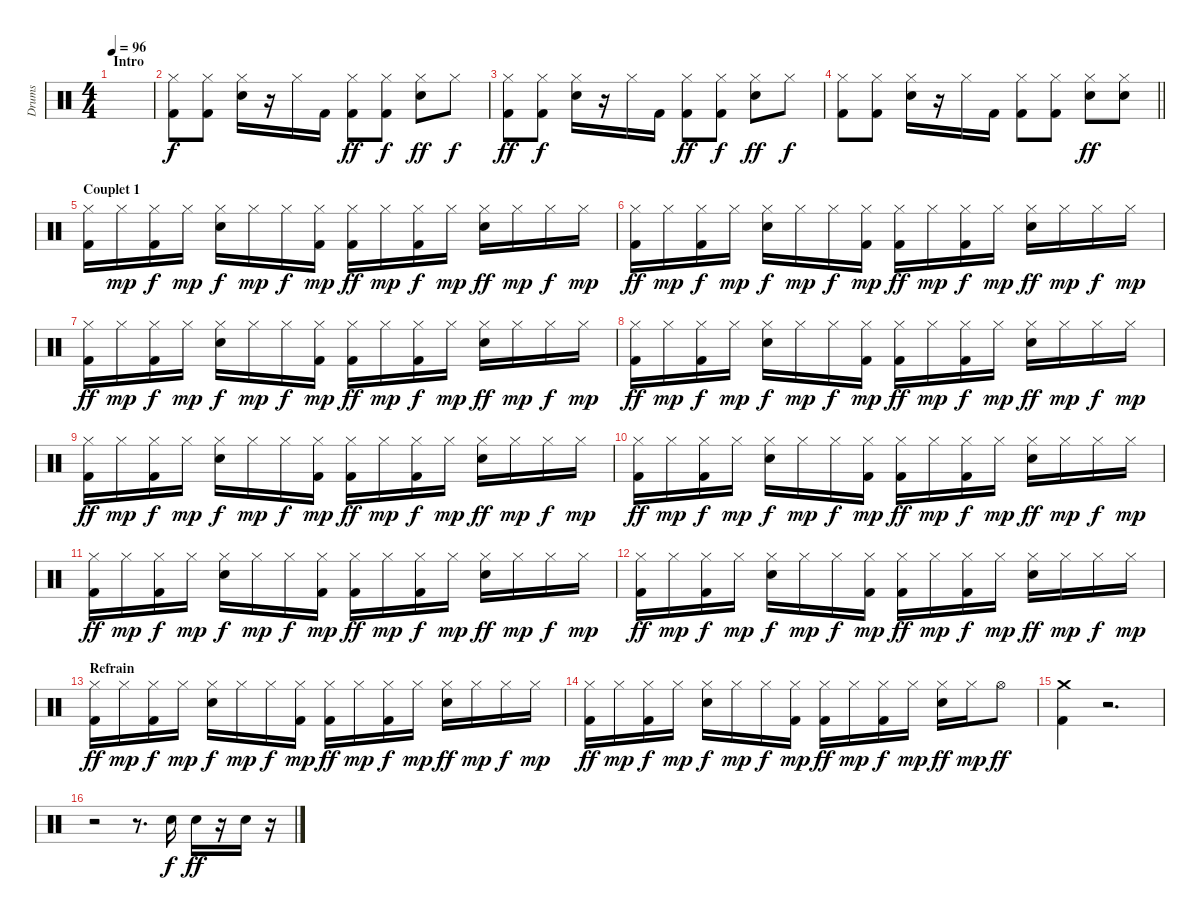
\track ("Drums" "Drums") {instrument percussion}
\staff {score}
\articulation defaults
\ts (4 4)
\section ("" "Intro")
\tempo 96
\clef neutral
\ks c
|
("Hi-Hat (closed)" "Kick (hit) 2").8 ("Hi-Hat (closed)" "Kick (hit) 2").8{dy f} ("Hi-Hat (closed)" "Snare (hit) 2").16 r.16 "Hi-Hat (closed)".16 "Kick (hit) 2".16 ("Hi-Hat (closed)" "Kick (hit) 2").8{dy ff} ("Hi-Hat (closed)" "Kick (hit) 2").8{dy f} ("Hi-Hat (closed)" "Snare (hit) 2").8{dy ff} "Hi-Hat (closed)".8{dy f} |
("Hi-Hat (closed)" "Kick (hit) 2").8{dy ff} ("Hi-Hat (closed)" "Kick (hit) 2").8{dy f} ("Hi-Hat (closed)" "Snare (hit) 2").16 r.16 "Hi-Hat (closed)".16 "Kick (hit) 2".16 ("Hi-Hat (closed)" "Kick (hit) 2").8{dy ff} ("Hi-Hat (closed)" "Kick (hit) 2").8{dy f} ("Hi-Hat (closed)" "Snare (hit) 2").8{dy ff} "Hi-Hat (closed)".8{dy f} |
\barLineRight lightlight
("Hi-Hat (closed)" "Kick (hit) 2").8 ("Hi-Hat (closed)" "Kick (hit) 2").8 ("Hi-Hat (closed)" "Snare (hit) 2").16 r.16 "Hi-Hat (closed)".16 "Kick (hit) 2".16 ("Hi-Hat (closed)" "Kick (hit) 2").8 ("Hi-Hat (closed)" "Kick (hit) 2").8 ("Hi-Hat (closed)" "Snare (hit) 2").8{dy ff} ("Hi-Hat (closed)" "Snare (hit) 2").8 |
\section ("" "Couplet 1")
("Hi-Hat (closed)" "Kick (hit) 2").16 "Hi-Hat (closed)".16{dy mp} ("Hi-Hat (closed)" "Kick (hit) 2").16{dy f} "Hi-Hat (closed)".16{dy mp} ("Hi-Hat (closed)" "Snare (hit) 2").16{dy f} "Hi-Hat (closed)".16{dy mp} "Hi-Hat (closed)".16{dy f} ("Hi-Hat (closed)" "Kick (hit) 2").16{dy mp} ("Hi-Hat (closed)" "Kick (hit) 2").16{dy ff} "Hi-Hat (closed)".16{dy mp} ("Hi-Hat (closed)" "Kick (hit) 2").16{dy f} "Hi-Hat (closed)".16{dy mp} ("Hi-Hat (closed)" "Snare (hit) 2").16{dy ff} "Hi-Hat (closed)".16{dy mp} "Hi-Hat (closed)".16{dy f} "Hi-Hat (closed)".16{dy mp} |
("Hi-Hat (closed)" "Kick (hit) 2").16{dy ff} "Hi-Hat (closed)".16{dy mp} ("Hi-Hat (closed)" "Kick (hit) 2").16{dy f} "Hi-Hat (closed)".16{dy mp} ("Hi-Hat (closed)" "Snare (hit) 2").16{dy f} "Hi-Hat (closed)".16{dy mp} "Hi-Hat (closed)".16{dy f} ("Hi-Hat (closed)" "Kick (hit) 2").16{dy mp} ("Hi-Hat (closed)" "Kick (hit) 2").16{dy ff} "Hi-Hat (closed)".16{dy mp} ("Hi-Hat (closed)" "Kick (hit) 2").16{dy f} "Hi-Hat (closed)".16{dy mp} ("Hi-Hat (closed)" "Snare (hit) 2").16{dy ff} "Hi-Hat (closed)".16{dy mp} "Hi-Hat (closed)".16{dy f} "Hi-Hat (closed)".16{dy mp} |
("Hi-Hat (closed)" "Kick (hit) 2").16{dy ff} "Hi-Hat (closed)".16{dy mp} ("Hi-Hat (closed)" "Kick (hit) 2").16{dy f} "Hi-Hat (closed)".16{dy mp} ("Hi-Hat (closed)" "Snare (hit) 2").16{dy f} "Hi-Hat (closed)".16{dy mp} "Hi-Hat (closed)".16{dy f} ("Hi-Hat (closed)" "Kick (hit) 2").16{dy mp} ("Hi-Hat (closed)" "Kick (hit) 2").16{dy ff} "Hi-Hat (closed)".16{dy mp} ("Hi-Hat (closed)" "Kick (hit) 2").16{dy f} "Hi-Hat (closed)".16{dy mp} ("Hi-Hat (closed)" "Snare (hit) 2").16{dy ff} "Hi-Hat (closed)".16{dy mp} "Hi-Hat (closed)".16{dy f} "Hi-Hat (closed)".16{dy mp} |
("Hi-Hat (closed)" "Kick (hit) 2").16{dy ff} "Hi-Hat (closed)".16{dy mp} ("Hi-Hat (closed)" "Kick (hit) 2").16{dy f} "Hi-Hat (closed)".16{dy mp} ("Hi-Hat (closed)" "Snare (hit) 2").16{dy f} "Hi-Hat (closed)".16{dy mp} "Hi-Hat (closed)".16{dy f} ("Hi-Hat (closed)" "Kick (hit) 2").16{dy mp} ("Hi-Hat (closed)" "Kick (hit) 2").16{dy ff} "Hi-Hat (closed)".16{dy mp} ("Hi-Hat (closed)" "Kick (hit) 2").16{dy f} "Hi-Hat (closed)".16{dy mp} ("Hi-Hat (closed)" "Snare (hit) 2").16{dy ff} "Hi-Hat (closed)".16{dy mp} "Hi-Hat (closed)".16{dy f} "Hi-Hat (closed)".16{dy mp} |
("Hi-Hat (closed)" "Kick (hit) 2").16{dy ff} "Hi-Hat (closed)".16{dy mp} ("Hi-Hat (closed)" "Kick (hit) 2").16{dy f} "Hi-Hat (closed)".16{dy mp} ("Hi-Hat (closed)" "Snare (hit) 2").16{dy f} "Hi-Hat (closed)".16{dy mp} "Hi-Hat (closed)".16{dy f} ("Hi-Hat (closed)" "Kick (hit) 2").16{dy mp} ("Hi-Hat (closed)" "Kick (hit) 2").16{dy ff} "Hi-Hat (closed)".16{dy mp} ("Hi-Hat (closed)" "Kick (hit) 2").16{dy f} "Hi-Hat (closed)".16{dy mp} ("Hi-Hat (closed)" "Snare (hit) 2").16{dy ff} "Hi-Hat (closed)".16{dy mp} "Hi-Hat (closed)".16{dy f} "Hi-Hat (closed)".16{dy mp} |
("Hi-Hat (closed)" "Kick (hit) 2").16{dy ff} "Hi-Hat (closed)".16{dy mp} ("Hi-Hat (closed)" "Kick (hit) 2").16{dy f} "Hi-Hat (closed)".16{dy mp} ("Hi-Hat (closed)" "Snare (hit) 2").16{dy f} "Hi-Hat (closed)".16{dy mp} "Hi-Hat (closed)".16{dy f} ("Hi-Hat (closed)" "Kick (hit) 2").16{dy mp} ("Hi-Hat (closed)" "Kick (hit) 2").16{dy ff} "Hi-Hat (closed)".16{dy mp} ("Hi-Hat (closed)" "Kick (hit) 2").16{dy f} "Hi-Hat (closed)".16{dy mp} ("Hi-Hat (closed)" "Snare (hit) 2").16{dy ff} "Hi-Hat (closed)".16{dy mp} "Hi-Hat (closed)".16{dy f} "Hi-Hat (closed)".16{dy mp} |
("Hi-Hat (closed)" "Kick (hit) 2").16{dy ff} "Hi-Hat (closed)".16{dy mp} ("Hi-Hat (closed)" "Kick (hit) 2").16{dy f} "Hi-Hat (closed)".16{dy mp} ("Hi-Hat (closed)" "Snare (hit) 2").16{dy f} "Hi-Hat (closed)".16{dy mp} "Hi-Hat (closed)".16{dy f} ("Hi-Hat (closed)" "Kick (hit) 2").16{dy mp} ("Hi-Hat (closed)" "Kick (hit) 2").16{dy ff} "Hi-Hat (closed)".16{dy mp} ("Hi-Hat (closed)" "Kick (hit) 2").16{dy f} "Hi-Hat (closed)".16{dy mp} ("Hi-Hat (closed)" "Snare (hit) 2").16{dy ff} "Hi-Hat (closed)".16{dy mp} "Hi-Hat (closed)".16{dy f} "Hi-Hat (closed)".16{dy mp} |
("Hi-Hat (closed)" "Kick (hit) 2").16{dy ff} "Hi-Hat (closed)".16{dy mp} ("Hi-Hat (closed)" "Kick (hit) 2").16{dy f} "Hi-Hat (closed)".16{dy mp} ("Hi-Hat (closed)" "Snare (hit) 2").16{dy f} "Hi-Hat (closed)".16{dy mp} "Hi-Hat (closed)".16{dy f} ("Hi-Hat (closed)" "Kick (hit) 2").16{dy mp} ("Hi-Hat (closed)" "Kick (hit) 2").16{dy ff} "Hi-Hat (closed)".16{dy mp} ("Hi-Hat (closed)" "Kick (hit) 2").16{dy f} "Hi-Hat (closed)".16{dy mp} ("Hi-Hat (closed)" "Snare (hit) 2").16{dy ff} "Hi-Hat (closed)".16{dy mp} "Hi-Hat (closed)".16{dy f} "Hi-Hat (closed)".16{dy mp} |
\section ("" "Refrain")
("Hi-Hat (closed)" "Kick (hit) 2").16{dy ff} "Hi-Hat (closed)".16{dy mp} ("Hi-Hat (closed)" "Kick (hit) 2").16{dy f} "Hi-Hat (closed)".16{dy mp} ("Hi-Hat (closed)" "Snare (hit) 2").16{dy f} "Hi-Hat (closed)".16{dy mp} "Hi-Hat (closed)".16{dy f} ("Hi-Hat (closed)" "Kick (hit) 2").16{dy mp} ("Hi-Hat (closed)" "Kick (hit) 2").16{dy ff} "Hi-Hat (closed)".16{dy mp} ("Hi-Hat (closed)" "Kick (hit) 2").16{dy f} "Hi-Hat (closed)".16{dy mp} ("Hi-Hat (closed)" "Snare (hit) 2").16{dy ff} "Hi-Hat (closed)".16{dy mp} "Hi-Hat (closed)".16{dy f} "Hi-Hat (closed)".16{dy mp} |
("Hi-Hat (closed)" "Kick (hit) 2").16{dy ff} "Hi-Hat (closed)".16{dy mp} ("Hi-Hat (closed)" "Kick (hit) 2").16{dy f} "Hi-Hat (closed)".16{dy mp} ("Hi-Hat (closed)" "Snare (hit) 2").16{dy f} "Hi-Hat (closed)".16{dy mp} "Hi-Hat (closed)".16{dy f} ("Hi-Hat (closed)" "Kick (hit) 2").16{dy mp} ("Hi-Hat (closed)" "Kick (hit) 2").16{dy ff} "Hi-Hat (closed)".16{dy mp} ("Hi-Hat (closed)" "Kick (hit) 2").16{dy f} "Hi-Hat (closed)".16{dy mp} ("Hi-Hat (closed)" "Snare (hit) 2").16{dy ff} "Hi-Hat (closed)".16{dy mp} "Hi-Hat (open)".8{dy ff} |
("Crash medium (hit)" "Kick (hit) 2").4 r.2{d} |
r.2 r.8{d} "Snare (hit) 2".16{dy f} "Snare (hit) 2".16{dy ff} r.16 "Snare (hit) 2".16 r.16
